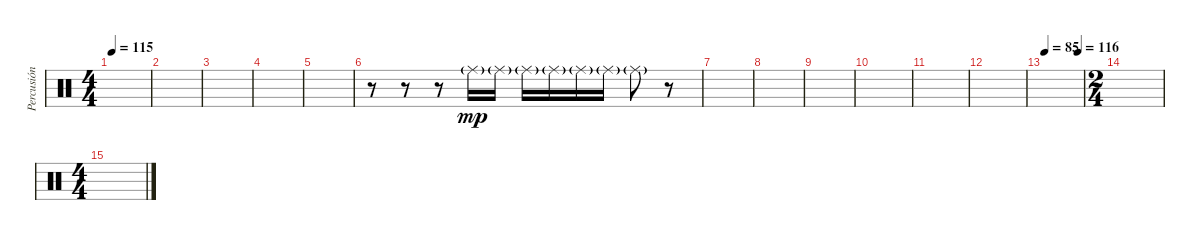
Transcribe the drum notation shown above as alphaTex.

\track ("Percusión" "Percusión") {instrument percussion}
\staff {score}
\articulation defaults
\ts (4 4)
\tempo 115
\clef neutral
\ks c
|
|
|
|
|
r.8 r.8 r.8 "Ride (middle)"{g}.16{dy mp} "Ride (middle)"{g}.16 "Ride (middle)"{g}.16 "Ride (middle)"{g}.16 "Ride (middle)"{g}.16 "Ride (middle)"{g}.16 "Ride (middle)"{g}.8 r.8 |
|
|
|
|
|
|
\tempo 85
\tempo (116 0.875)
|
\ts (2 4)
|
\ts (4 4)
